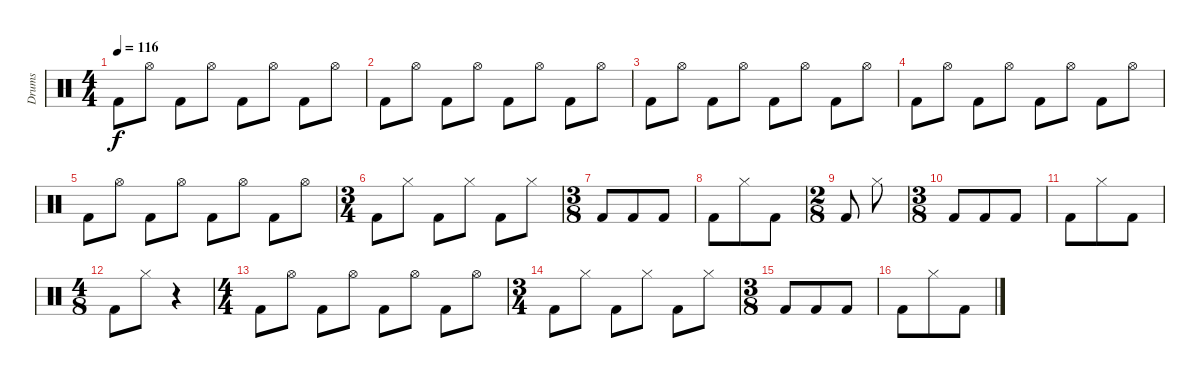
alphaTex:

\track ("Drums" "Drums") {instrument percussion}
\staff {score}
\articulation defaults
\ts (4 4)
\tempo 116
\clef neutral
\ks c "Kick (hit) 2".8{dy f} "Hi-Hat (open)".8 "Kick (hit) 2".8 "Hi-Hat (open)".8 "Kick (hit) 2".8 "Hi-Hat (open)".8 "Kick (hit) 2".8 "Hi-Hat (open)".8
|
"Kick (hit) 2".8 "Hi-Hat (open)".8 "Kick (hit) 2".8 "Hi-Hat (open)".8 "Kick (hit) 2".8 "Hi-Hat (open)".8 "Kick (hit) 2".8 "Hi-Hat (open)".8 |
"Kick (hit) 2".8 "Hi-Hat (open)".8 "Kick (hit) 2".8 "Hi-Hat (open)".8 "Kick (hit) 2".8 "Hi-Hat (open)".8 "Kick (hit) 2".8 "Hi-Hat (open)".8 |
"Kick (hit) 2".8 "Hi-Hat (open)".8 "Kick (hit) 2".8 "Hi-Hat (open)".8 "Kick (hit) 2".8 "Hi-Hat (open)".8 "Kick (hit) 2".8 "Hi-Hat (open)".8 |
"Kick (hit) 2".8 "Hi-Hat (open)".8 "Kick (hit) 2".8 "Hi-Hat (open)".8 "Kick (hit) 2".8 "Hi-Hat (open)".8 "Kick (hit) 2".8 "Hi-Hat (open)".8 |
\ts (3 4)
"Kick (hit) 2".8 "Hi-Hat (closed)".8 "Kick (hit) 2".8 "Hi-Hat (closed)".8 "Kick (hit) 2".8 "Hi-Hat (closed)".8 |
\ts (3 8)
"Kick (hit) 2".8 "Kick (hit) 2".8 "Kick (hit) 2".8 |
"Kick (hit) 2".8 "Hi-Hat (closed)".8 "Kick (hit) 2".8 |
\ts (2 8)
"Kick (hit) 2".8 "Hi-Hat (closed)".8 |
\ts (3 8)
"Kick (hit) 2".8 "Kick (hit) 2".8 "Kick (hit) 2".8 |
"Kick (hit) 2".8 "Hi-Hat (closed)".8 "Kick (hit) 2".8 |
\ts (4 8)
"Kick (hit) 2".8 "Hi-Hat (closed)".8 r.4 |
\ts (4 4)
"Kick (hit) 2".8 "Hi-Hat (open)".8 "Kick (hit) 2".8 "Hi-Hat (open)".8 "Kick (hit) 2".8 "Hi-Hat (open)".8 "Kick (hit) 2".8 "Hi-Hat (open)".8 |
\ts (3 4)
"Kick (hit) 2".8 "Hi-Hat (closed)".8 "Kick (hit) 2".8 "Hi-Hat (closed)".8 "Kick (hit) 2".8 "Hi-Hat (closed)".8 |
\ts (3 8)
"Kick (hit) 2".8 "Kick (hit) 2".8 "Kick (hit) 2".8 |
"Kick (hit) 2".8 "Hi-Hat (closed)".8 "Kick (hit) 2".8
